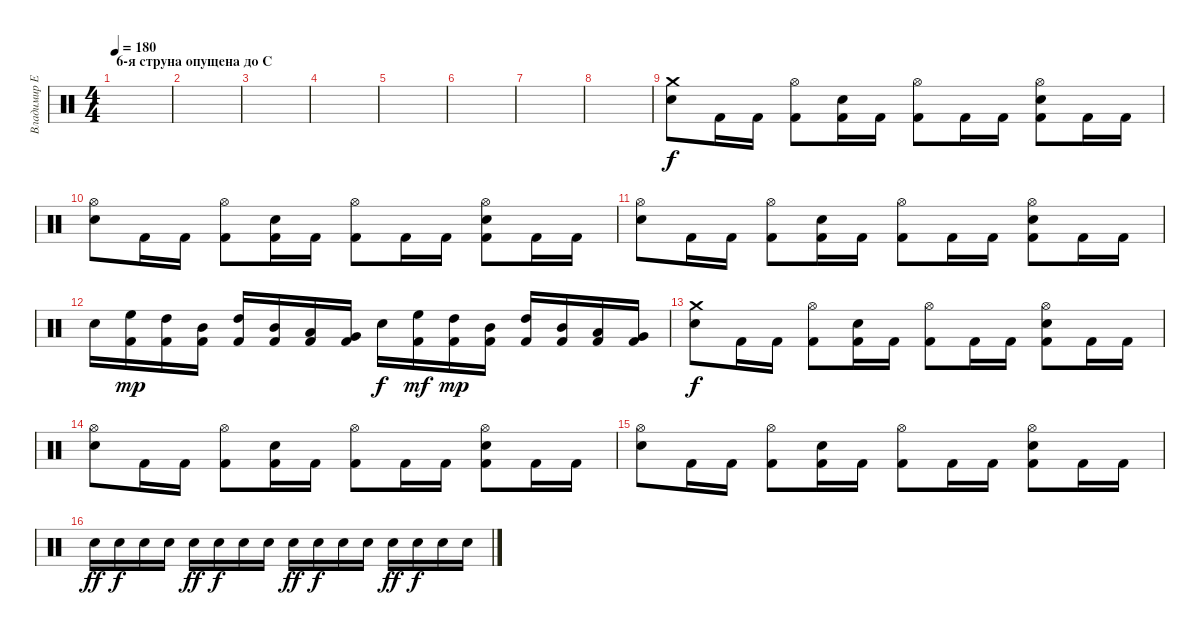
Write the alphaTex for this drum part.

\track ("Владимир Ермаков" "Владимир Е") {instrument percussion}
\staff {score}
\articulation defaults
\ts (4 4)
\section ("" "6-я струна опущена до С")
\tempo 180
\clef neutral
\ks c
|
|
|
|
|
|
|
|
("Electric Snare (hit)" "Crash medium (hit)").8 "Kick (hit) 2".16 "Kick (hit) 2".16 ("Kick (hit) 2" "Hi-Hat (open)").8 ("Electric Snare (hit)" "Kick (hit) 2").16 "Kick (hit) 2".16 ("Kick (hit) 2" "Hi-Hat (open)").8 "Kick (hit) 2".16 "Kick (hit) 2".16 ("Electric Snare (hit)" "Kick (hit) 2" "Hi-Hat (open)").8 "Kick (hit) 2".16 "Kick (hit) 2".16 |
("Electric Snare (hit)" "Hi-Hat (open)").8 "Kick (hit) 2".16 "Kick (hit) 2".16 ("Kick (hit) 2" "Hi-Hat (open)").8 ("Electric Snare (hit)" "Kick (hit) 2").16 "Kick (hit) 2".16 ("Kick (hit) 2" "Hi-Hat (open)").8 "Kick (hit) 2".16 "Kick (hit) 2".16 ("Electric Snare (hit)" "Kick (hit) 2" "Hi-Hat (open)").8 "Kick (hit) 2".16 "Kick (hit) 2".16 |
("Electric Snare (hit)" "Hi-Hat (open)").8 "Kick (hit) 2".16 "Kick (hit) 2".16 ("Kick (hit) 2" "Hi-Hat (open)").8 ("Electric Snare (hit)" "Kick (hit) 2").16 "Kick (hit) 2".16 ("Kick (hit) 2" "Hi-Hat (open)").8 "Kick (hit) 2".16 "Kick (hit) 2".16 ("Electric Snare (hit)" "Kick (hit) 2" "Hi-Hat (open)").8 "Kick (hit) 2".16 "Kick (hit) 2".16 |
"Electric Snare (hit)".16 ("High Floor Tom (hit)" "Kick (hit) 2").16{dy mp} ("High Tom (hit)" "Kick (hit) 2").16 ("Mid Tom (hit)" "Kick (hit) 2").16 ("High Tom (hit)" "Kick (hit) 2").16 ("Mid Tom (hit)" "Kick (hit) 2").16 ("Low Tom (hit)" "Kick (hit) 2").16 ("Very Low Tom (hit)" "Kick (hit) 2").16 "Electric Snare (hit)".16{dy f} ("High Floor Tom (hit)" "Kick (hit) 2").16{dy mf} ("High Tom (hit)" "Kick (hit) 2").16{dy mp} ("Mid Tom (hit)" "Kick (hit) 2").16 ("High Tom (hit)" "Kick (hit) 2").16 ("Mid Tom (hit)" "Kick (hit) 2").16 ("Low Tom (hit)" "Kick (hit) 2").16 ("Very Low Tom (hit)" "Kick (hit) 2").16 |
("Electric Snare (hit)" "Crash medium (hit)").8{dy f} "Kick (hit) 2".16 "Kick (hit) 2".16 ("Kick (hit) 2" "Hi-Hat (open)").8 ("Electric Snare (hit)" "Kick (hit) 2").16 "Kick (hit) 2".16 ("Kick (hit) 2" "Hi-Hat (open)").8 "Kick (hit) 2".16 "Kick (hit) 2".16 ("Electric Snare (hit)" "Kick (hit) 2" "Hi-Hat (open)").8 "Kick (hit) 2".16 "Kick (hit) 2".16 |
("Electric Snare (hit)" "Hi-Hat (open)").8 "Kick (hit) 2".16 "Kick (hit) 2".16 ("Kick (hit) 2" "Hi-Hat (open)").8 ("Electric Snare (hit)" "Kick (hit) 2").16 "Kick (hit) 2".16 ("Kick (hit) 2" "Hi-Hat (open)").8 "Kick (hit) 2".16 "Kick (hit) 2".16 ("Electric Snare (hit)" "Kick (hit) 2" "Hi-Hat (open)").8 "Kick (hit) 2".16 "Kick (hit) 2".16 |
("Electric Snare (hit)" "Hi-Hat (open)").8 "Kick (hit) 2".16 "Kick (hit) 2".16 ("Kick (hit) 2" "Hi-Hat (open)").8 ("Electric Snare (hit)" "Kick (hit) 2").16 "Kick (hit) 2".16 ("Kick (hit) 2" "Hi-Hat (open)").8 "Kick (hit) 2".16 "Kick (hit) 2".16 ("Electric Snare (hit)" "Kick (hit) 2" "Hi-Hat (open)").8 "Kick (hit) 2".16 "Kick (hit) 2".16 |
"Electric Snare (hit)".16{dy ff} "Electric Snare (hit)".16{dy f} "Electric Snare (hit)".16 "Electric Snare (hit)".16 "Electric Snare (hit)".16{dy ff} "Electric Snare (hit)".16{dy f} "Electric Snare (hit)".16 "Electric Snare (hit)".16 "Electric Snare (hit)".16{dy ff} "Electric Snare (hit)".16{dy f} "Electric Snare (hit)".16 "Electric Snare (hit)".16 "Electric Snare (hit)".16{dy ff} "Electric Snare (hit)".16{dy f} "Electric Snare (hit)".16 "Electric Snare (hit)".16
